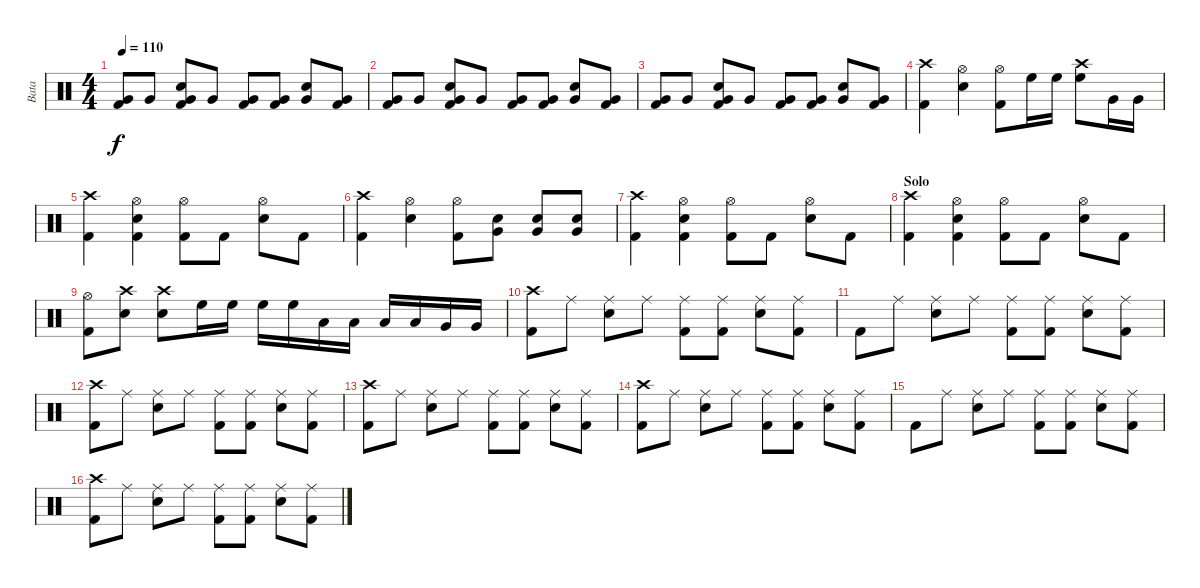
\track ("Bata" "Bata") {instrument percussion}
\staff {score}
\articulation defaults
\ts (4 4)
\tempo 110
\clef neutral
\ks c
("Kick (hit) 2" "Very Low Tom (hit)").8{dy f} "Very Low Tom (hit)".8 ("Kick (hit) 2" "Snare (hit) 2" "Very Low Tom (hit)").8 "Very Low Tom (hit)".8 ("Kick (hit) 2" "Very Low Tom (hit)").8 ("Kick (hit) 2" "Very Low Tom (hit)").8 ("Snare (hit) 2" "Very Low Tom (hit)").8 ("Kick (hit) 2" "Very Low Tom (hit)").8 |
("Kick (hit) 2" "Very Low Tom (hit)").8 "Very Low Tom (hit)".8 ("Kick (hit) 2" "Snare (hit) 2" "Very Low Tom (hit)").8 "Very Low Tom (hit)".8 ("Kick (hit) 2" "Very Low Tom (hit)").8 ("Kick (hit) 2" "Very Low Tom (hit)").8 ("Snare (hit) 2" "Very Low Tom (hit)").8 ("Kick (hit) 2" "Very Low Tom (hit)").8 |
("Kick (hit) 2" "Very Low Tom (hit)").8 "Very Low Tom (hit)".8 ("Kick (hit) 2" "Snare (hit) 2" "Very Low Tom (hit)").8 "Very Low Tom (hit)".8 ("Kick (hit) 2" "Very Low Tom (hit)").8 ("Kick (hit) 2" "Very Low Tom (hit)").8 ("Snare (hit) 2" "Very Low Tom (hit)").8 ("Kick (hit) 2" "Very Low Tom (hit)").8 |
("Kick (hit) 2" "Crash high (hit)").4 ("Snare (hit) 2" "Hi-Hat (open)").4 ("Kick (hit) 2" "Hi-Hat (open)").8 "High Floor Tom (hit)".16 "High Floor Tom (hit)".16 ("High Floor Tom (hit)" "Crash high (hit)").8 "Very Low Tom (hit)".16 "Very Low Tom (hit)".16 |
("Kick (hit) 2" "Crash high (hit)").4 ("Kick (hit) 2" "Snare (hit) 2" "Hi-Hat (open)").4 ("Kick (hit) 2" "Hi-Hat (open)").8 "Kick (hit) 2".8 ("Snare (hit) 2" "Hi-Hat (open)").8 "Kick (hit) 2".8 |
("Kick (hit) 2" "Crash high (hit)").4 ("Snare (hit) 2" "Hi-Hat (open)").4 ("Kick (hit) 2" "Hi-Hat (open)").8 ("Snare (hit) 2" "Very Low Tom (hit)").8 ("Snare (hit) 2" "Very Low Tom (hit)").8 ("Snare (hit) 2" "Very Low Tom (hit)").8 |
("Kick (hit) 2" "Crash high (hit)").4 ("Kick (hit) 2" "Snare (hit) 2" "Hi-Hat (open)").4 ("Kick (hit) 2" "Hi-Hat (open)").8 "Kick (hit) 2".8 ("Snare (hit) 2" "Hi-Hat (open)").8 "Kick (hit) 2".8 |
\section ("" "Solo")
("Kick (hit) 2" "Crash high (hit)").4 ("Kick (hit) 2" "Snare (hit) 2" "Hi-Hat (open)").4 ("Kick (hit) 2" "Hi-Hat (open)").8 "Kick (hit) 2".8 ("Snare (hit) 2" "Hi-Hat (open)").8 "Kick (hit) 2".8 |
("Kick (hit) 2" "Hi-Hat (open)").8 ("Snare (hit) 2" "Crash high (hit)").8 ("Snare (hit) 2" "Crash high (hit)").8 "High Floor Tom (hit)".16 "High Floor Tom (hit)".16 "High Floor Tom (hit)".16 "High Floor Tom (hit)".16 "Low Tom (hit)".16 "Low Tom (hit)".16 "Low Tom (hit)".16 "Low Tom (hit)".16 "Very Low Tom (hit)".16 "Very Low Tom (hit)".16 |
("Kick (hit) 2" "Crash high (hit)").8 "Ride (middle)".8 ("Ride (middle)" "Snare (hit) 2").8 "Ride (middle)".8 ("Kick (hit) 2" "Ride (middle)").8 ("Kick (hit) 2" "Ride (middle)").8 ("Ride (middle)" "Snare (hit) 2").8 ("Kick (hit) 2" "Ride (middle)").8 |
"Kick (hit) 2".8 "Ride (middle)".8 ("Ride (middle)" "Snare (hit) 2").8 "Ride (middle)".8 ("Kick (hit) 2" "Ride (middle)").8 ("Kick (hit) 2" "Ride (middle)").8 ("Ride (middle)" "Snare (hit) 2").8 ("Kick (hit) 2" "Ride (middle)").8 |
("Kick (hit) 2" "Crash high (hit)").8 "Ride (middle)".8 ("Ride (middle)" "Snare (hit) 2").8 "Ride (middle)".8 ("Kick (hit) 2" "Ride (middle)").8 ("Kick (hit) 2" "Ride (middle)").8 ("Ride (middle)" "Snare (hit) 2").8 ("Kick (hit) 2" "Ride (middle)").8 |
("Kick (hit) 2" "Crash high (hit)").8 "Ride (middle)".8 ("Ride (middle)" "Snare (hit) 2").8 "Ride (middle)".8 ("Kick (hit) 2" "Ride (middle)").8 ("Kick (hit) 2" "Ride (middle)").8 ("Ride (middle)" "Snare (hit) 2").8 ("Kick (hit) 2" "Ride (middle)").8 |
("Kick (hit) 2" "Crash high (hit)").8 "Ride (middle)".8 ("Ride (middle)" "Snare (hit) 2").8 "Ride (middle)".8 ("Kick (hit) 2" "Ride (middle)").8 ("Kick (hit) 2" "Ride (middle)").8 ("Ride (middle)" "Snare (hit) 2").8 ("Kick (hit) 2" "Ride (middle)").8 |
"Kick (hit) 2".8 "Ride (middle)".8 ("Ride (middle)" "Snare (hit) 2").8 "Ride (middle)".8 ("Kick (hit) 2" "Ride (middle)").8 ("Kick (hit) 2" "Ride (middle)").8 ("Ride (middle)" "Snare (hit) 2").8 ("Kick (hit) 2" "Ride (middle)").8 |
("Kick (hit) 2" "Crash high (hit)").8 "Ride (middle)".8 ("Ride (middle)" "Snare (hit) 2").8 "Ride (middle)".8 ("Kick (hit) 2" "Ride (middle)").8 ("Kick (hit) 2" "Ride (middle)").8 ("Ride (middle)" "Snare (hit) 2").8 ("Kick (hit) 2" "Ride (middle)").8
